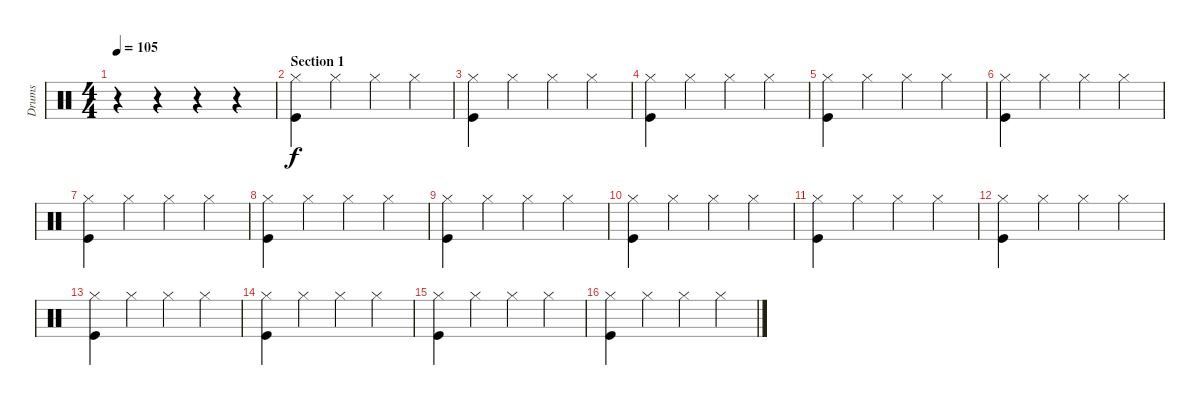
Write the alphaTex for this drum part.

\track ("Drums" "Drums") {instrument percussion}
\staff {score}
\articulation defaults
\ts (4 4)
\tempo 105
\clef neutral
\ks c
r.4{dy f} r.4 r.4 r.4 |
\section ("" "Section 1")
("Hi-Hat (closed)" "Kick (hit)").4 "Hi-Hat (closed)".4 "Hi-Hat (closed)".4 "Hi-Hat (closed)".4 |
("Hi-Hat (closed)" "Kick (hit)").4 "Hi-Hat (closed)".4 "Hi-Hat (closed)".4 "Hi-Hat (closed)".4 |
("Hi-Hat (closed)" "Kick (hit)").4 "Hi-Hat (closed)".4 "Hi-Hat (closed)".4 "Hi-Hat (closed)".4 |
("Hi-Hat (closed)" "Kick (hit)").4 "Hi-Hat (closed)".4 "Hi-Hat (closed)".4 "Hi-Hat (closed)".4 |
("Hi-Hat (closed)" "Kick (hit)").4 "Hi-Hat (closed)".4 "Hi-Hat (closed)".4 "Hi-Hat (closed)".4 |
("Hi-Hat (closed)" "Kick (hit)").4 "Hi-Hat (closed)".4 "Hi-Hat (closed)".4 "Hi-Hat (closed)".4 |
("Hi-Hat (closed)" "Kick (hit)").4 "Hi-Hat (closed)".4 "Hi-Hat (closed)".4 "Hi-Hat (closed)".4 |
("Hi-Hat (closed)" "Kick (hit)").4 "Hi-Hat (closed)".4 "Hi-Hat (closed)".4 "Hi-Hat (closed)".4 |
("Hi-Hat (closed)" "Kick (hit)").4 "Hi-Hat (closed)".4 "Hi-Hat (closed)".4 "Hi-Hat (closed)".4 |
("Hi-Hat (closed)" "Kick (hit)").4 "Hi-Hat (closed)".4 "Hi-Hat (closed)".4 "Hi-Hat (closed)".4 |
("Hi-Hat (closed)" "Kick (hit)").4 "Hi-Hat (closed)".4 "Hi-Hat (closed)".4 "Hi-Hat (closed)".4 |
("Hi-Hat (closed)" "Kick (hit)").4 "Hi-Hat (closed)".4 "Hi-Hat (closed)".4 "Hi-Hat (closed)".4 |
("Hi-Hat (closed)" "Kick (hit)").4 "Hi-Hat (closed)".4 "Hi-Hat (closed)".4 "Hi-Hat (closed)".4 |
("Hi-Hat (closed)" "Kick (hit)").4 "Hi-Hat (closed)".4 "Hi-Hat (closed)".4 "Hi-Hat (closed)".4 |
("Hi-Hat (closed)" "Kick (hit)").4 "Hi-Hat (closed)".4 "Hi-Hat (closed)".4 "Hi-Hat (closed)".4
